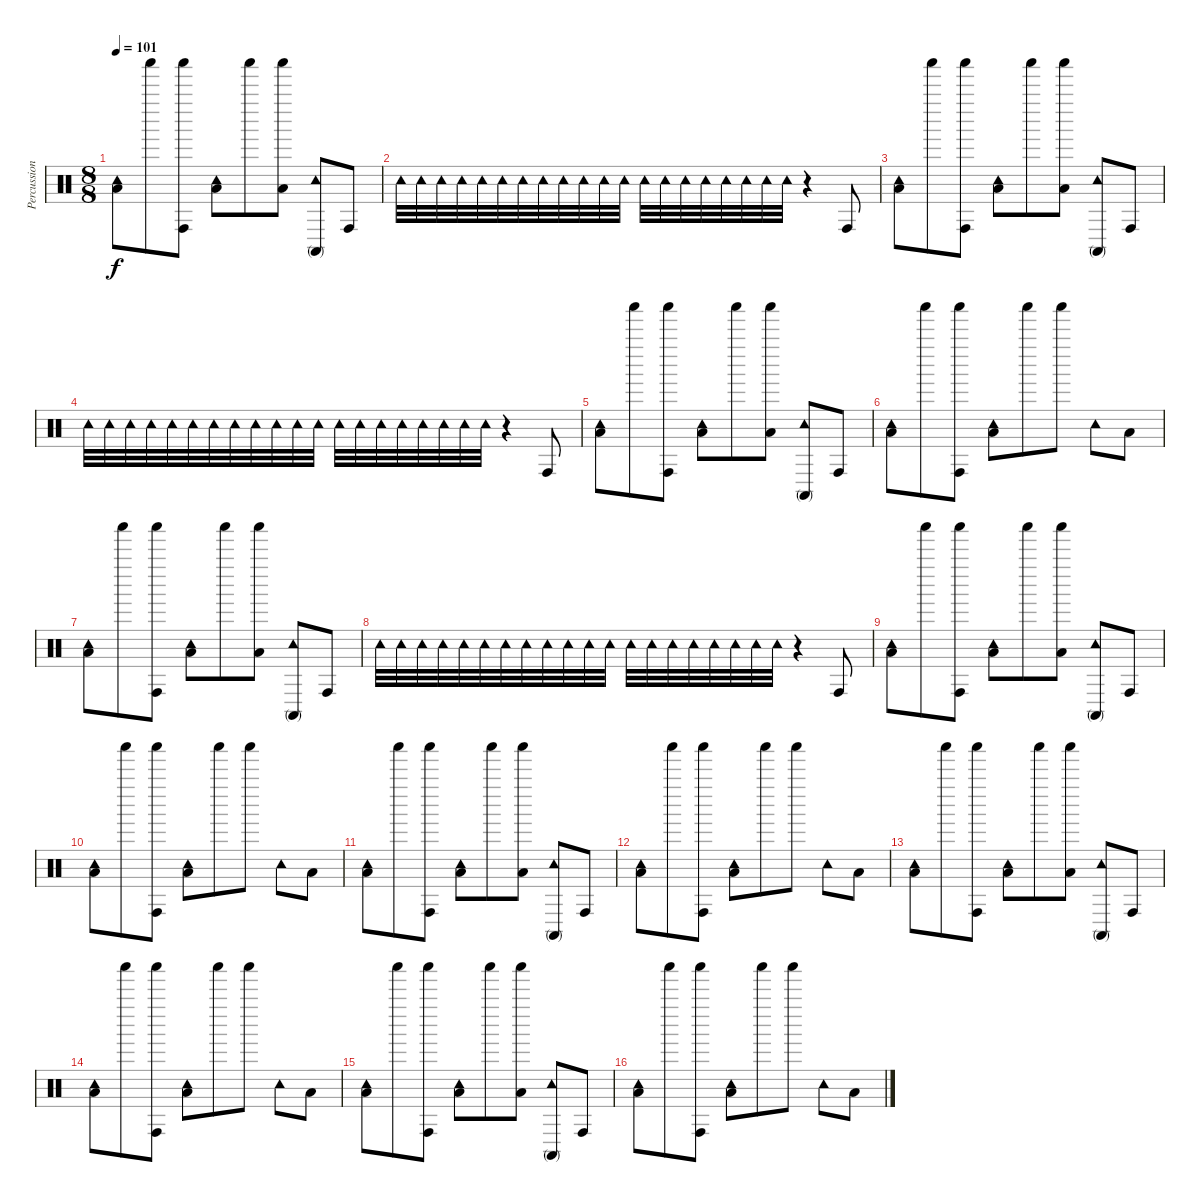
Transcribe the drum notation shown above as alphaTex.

\track ("Percussion" "Percussion") {instrument percussion}
\staff {score}
\articulation defaults
\ts (8 8)
\tempo 101
\clef neutral
\ks c
("Tambourine (hit)" "Low Floor Tom (hit)").8{dy f} "Shaker (hit)".8 ("Shaker (hit)" "Conga high (hit)").8 ("Tambourine (hit)" "Low Floor Tom (hit)").8 "Shaker (hit)".8 ("Shaker (hit)" "Low Floor Tom (hit)").8 ("Tambourine (hit)" "Conga high (mute)").8 "Conga high (hit)".8 |
"Tambourine (hit)".32 "Tambourine (hit)".32 "Tambourine (hit)".32 "Tambourine (hit)".32 "Tambourine (hit)".32 "Tambourine (hit)".32 "Tambourine (hit)".32 "Tambourine (hit)".32 "Tambourine (hit)".32 "Tambourine (hit)".32 "Tambourine (hit)".32 "Tambourine (hit)".32 "Tambourine (hit)".32 "Tambourine (hit)".32 "Tambourine (hit)".32 "Tambourine (hit)".32 "Tambourine (hit)".32 "Tambourine (hit)".32 "Tambourine (hit)".32 "Tambourine (hit)".32 r.4 "Conga high (hit)".8 |
("Tambourine (hit)" "Low Floor Tom (hit)").8 "Shaker (hit)".8 ("Shaker (hit)" "Conga high (hit)").8 ("Tambourine (hit)" "Low Floor Tom (hit)").8 "Shaker (hit)".8 ("Shaker (hit)" "Low Floor Tom (hit)").8 ("Tambourine (hit)" "Conga high (mute)").8 "Conga high (hit)".8 |
"Tambourine (hit)".32 "Tambourine (hit)".32 "Tambourine (hit)".32 "Tambourine (hit)".32 "Tambourine (hit)".32 "Tambourine (hit)".32 "Tambourine (hit)".32 "Tambourine (hit)".32 "Tambourine (hit)".32 "Tambourine (hit)".32 "Tambourine (hit)".32 "Tambourine (hit)".32 "Tambourine (hit)".32 "Tambourine (hit)".32 "Tambourine (hit)".32 "Tambourine (hit)".32 "Tambourine (hit)".32 "Tambourine (hit)".32 "Tambourine (hit)".32 "Tambourine (hit)".32 r.4 "Conga high (hit)".8 |
("Tambourine (hit)" "Low Floor Tom (hit)").8 "Shaker (hit)".8 ("Shaker (hit)" "Conga high (hit)").8 ("Tambourine (hit)" "Low Floor Tom (hit)").8 "Shaker (hit)".8 ("Shaker (hit)" "Low Floor Tom (hit)").8 ("Tambourine (hit)" "Conga high (mute)").8 "Conga high (hit)".8 |
("Tambourine (hit)" "Low Floor Tom (hit)").8 "Shaker (hit)".8 ("Shaker (hit)" "Conga high (hit)").8 ("Tambourine (hit)" "Low Floor Tom (hit)").8 "Shaker (hit)".8 "Shaker (hit)".8 "Tambourine (hit)".8 "Low Floor Tom (hit)".8 |
("Tambourine (hit)" "Low Floor Tom (hit)").8 "Shaker (hit)".8 ("Shaker (hit)" "Conga high (hit)").8 ("Tambourine (hit)" "Low Floor Tom (hit)").8 "Shaker (hit)".8 ("Shaker (hit)" "Low Floor Tom (hit)").8 ("Tambourine (hit)" "Conga high (mute)").8 "Conga high (hit)".8 |
"Tambourine (hit)".32 "Tambourine (hit)".32 "Tambourine (hit)".32 "Tambourine (hit)".32 "Tambourine (hit)".32 "Tambourine (hit)".32 "Tambourine (hit)".32 "Tambourine (hit)".32 "Tambourine (hit)".32 "Tambourine (hit)".32 "Tambourine (hit)".32 "Tambourine (hit)".32 "Tambourine (hit)".32 "Tambourine (hit)".32 "Tambourine (hit)".32 "Tambourine (hit)".32 "Tambourine (hit)".32 "Tambourine (hit)".32 "Tambourine (hit)".32 "Tambourine (hit)".32 r.4 "Conga high (hit)".8 |
("Tambourine (hit)" "Low Floor Tom (hit)").8 "Shaker (hit)".8 ("Shaker (hit)" "Conga high (hit)").8 ("Tambourine (hit)" "Low Floor Tom (hit)").8 "Shaker (hit)".8 ("Shaker (hit)" "Low Floor Tom (hit)").8 ("Tambourine (hit)" "Conga high (mute)").8 "Conga high (hit)".8 |
("Tambourine (hit)" "Low Floor Tom (hit)").8 "Shaker (hit)".8 ("Shaker (hit)" "Conga high (hit)").8 ("Tambourine (hit)" "Low Floor Tom (hit)").8 "Shaker (hit)".8 "Shaker (hit)".8 "Tambourine (hit)".8 "Low Floor Tom (hit)".8 |
("Tambourine (hit)" "Low Floor Tom (hit)").8 "Shaker (hit)".8 ("Shaker (hit)" "Conga high (hit)").8 ("Tambourine (hit)" "Low Floor Tom (hit)").8 "Shaker (hit)".8 ("Shaker (hit)" "Low Floor Tom (hit)").8 ("Tambourine (hit)" "Conga high (mute)").8 "Conga high (hit)".8 |
("Tambourine (hit)" "Low Floor Tom (hit)").8 "Shaker (hit)".8 ("Shaker (hit)" "Conga high (hit)").8 ("Tambourine (hit)" "Low Floor Tom (hit)").8 "Shaker (hit)".8 "Shaker (hit)".8 "Tambourine (hit)".8 "Low Floor Tom (hit)".8 |
("Tambourine (hit)" "Low Floor Tom (hit)").8 "Shaker (hit)".8 ("Shaker (hit)" "Conga high (hit)").8 ("Tambourine (hit)" "Low Floor Tom (hit)").8 "Shaker (hit)".8 ("Shaker (hit)" "Low Floor Tom (hit)").8 ("Tambourine (hit)" "Conga high (mute)").8 "Conga high (hit)".8 |
("Tambourine (hit)" "Low Floor Tom (hit)").8 "Shaker (hit)".8 ("Shaker (hit)" "Conga high (hit)").8 ("Tambourine (hit)" "Low Floor Tom (hit)").8 "Shaker (hit)".8 "Shaker (hit)".8 "Tambourine (hit)".8 "Low Floor Tom (hit)".8 |
("Tambourine (hit)" "Low Floor Tom (hit)").8 "Shaker (hit)".8 ("Shaker (hit)" "Conga high (hit)").8 ("Tambourine (hit)" "Low Floor Tom (hit)").8 "Shaker (hit)".8 ("Shaker (hit)" "Low Floor Tom (hit)").8 ("Tambourine (hit)" "Conga high (mute)").8 "Conga high (hit)".8 |
("Tambourine (hit)" "Low Floor Tom (hit)").8 "Shaker (hit)".8 ("Shaker (hit)" "Conga high (hit)").8 ("Tambourine (hit)" "Low Floor Tom (hit)").8 "Shaker (hit)".8 "Shaker (hit)".8 "Tambourine (hit)".8 "Low Floor Tom (hit)".8
